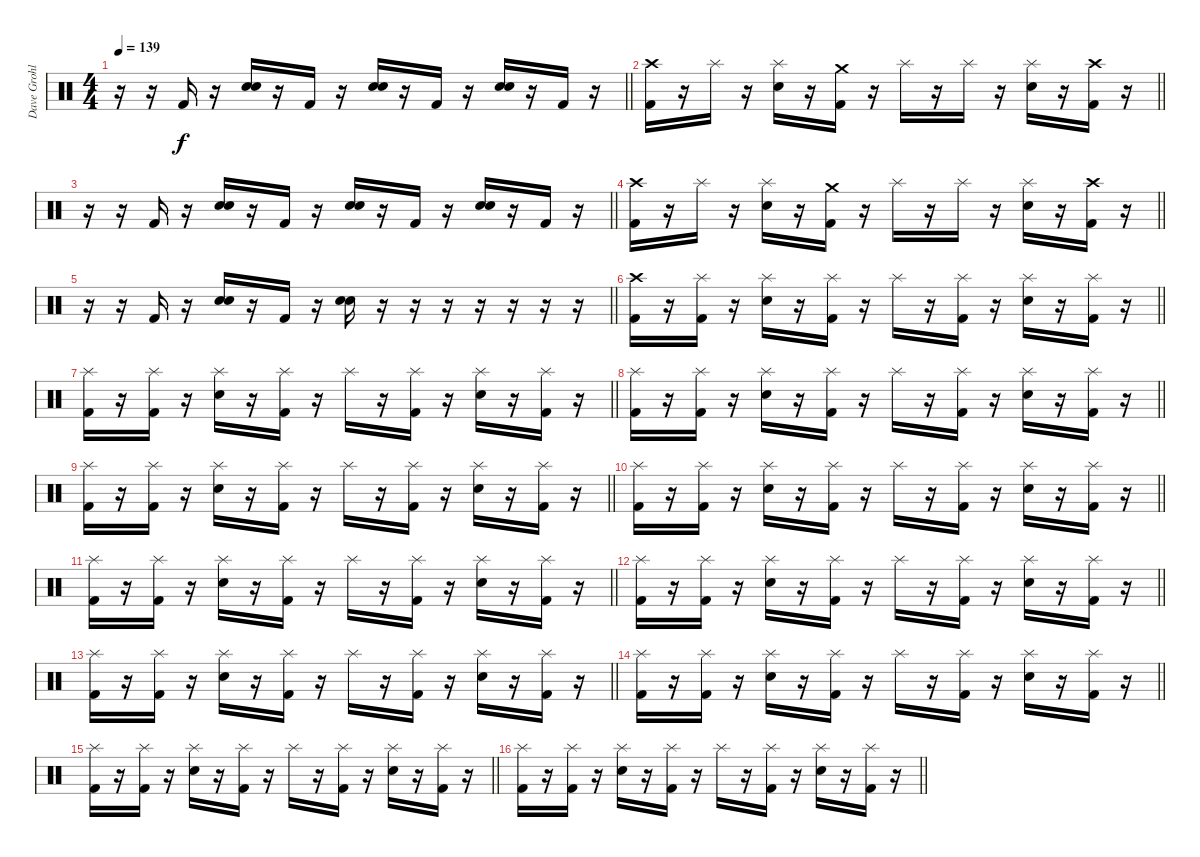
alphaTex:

\track ("Dave Grohl" "Dave Grohl") {instrument percussion}
\staff {score}
\articulation defaults
\ts (4 4)
\tempo 139
\clef neutral
\barLineRight lightlight
\ks c
r.16{dy f} r.16 "Kick (hit) 2".16 r.16 ("Electric Snare (hit)" "Electric Snare (hit)").16 r.16 "Kick (hit) 2".16 r.16 ("Electric Snare (hit)" "Electric Snare (hit)").16 r.16 "Kick (hit) 2".16 r.16 ("Electric Snare (hit)" "Electric Snare (hit)").16 r.16 "Kick (hit) 2".16 r.16 |
\barLineRight lightlight
("Crash high (hit)" "Kick (hit) 2").16 r.16 "Splash (hit)".16 r.16 ("Splash (hit)" "Electric Snare (hit)").16 r.16 ("Crash medium (hit)" "Kick (hit) 2").16 r.16 "Splash (hit)".16 r.16 "Splash (hit)".16 r.16 ("Splash (hit)" "Electric Snare (hit)").16 r.16 ("Crash high (hit)" "Kick (hit) 2").16 r.16 |
\barLineRight lightlight
r.16 r.16 "Kick (hit) 2".16 r.16 ("Electric Snare (hit)" "Electric Snare (hit)").16 r.16 "Kick (hit) 2".16 r.16 ("Electric Snare (hit)" "Electric Snare (hit)").16 r.16 "Kick (hit) 2".16 r.16 ("Electric Snare (hit)" "Electric Snare (hit)").16 r.16 "Kick (hit) 2".16 r.16 |
\barLineRight lightlight
("Crash high (hit)" "Kick (hit) 2").16 r.16 "Splash (hit)".16 r.16 ("Splash (hit)" "Electric Snare (hit)").16 r.16 ("Crash medium (hit)" "Kick (hit) 2").16 r.16 "Splash (hit)".16 r.16 "Splash (hit)".16 r.16 ("Splash (hit)" "Electric Snare (hit)").16 r.16 ("Crash high (hit)" "Kick (hit) 2").16 r.16 |
\barLineRight lightlight
r.16 r.16 "Kick (hit) 2".16 r.16 ("Electric Snare (hit)" "Electric Snare (hit)").16 r.16 "Kick (hit) 2".16 r.16 ("Electric Snare (hit)" "Electric Snare (hit)").16 r.16 r.16 r.16 r.16 r.16 r.16 r.16 |
\barLineRight lightlight
("Crash high (hit)" "Kick (hit) 2").16 r.16 ("Splash (hit)" "Kick (hit) 2").16 r.16 ("Splash (hit)" "Electric Snare (hit)").16 r.16 ("Splash (hit)" "Kick (hit) 2").16 r.16 "Splash (hit)".16 r.16 ("Splash (hit)" "Kick (hit) 2").16 r.16 ("Splash (hit)" "Electric Snare (hit)").16 r.16 ("Splash (hit)" "Kick (hit) 2").16 r.16 |
\barLineRight lightlight
("Splash (hit)" "Kick (hit) 2").16 r.16 ("Splash (hit)" "Kick (hit) 2").16 r.16 ("Splash (hit)" "Electric Snare (hit)").16 r.16 ("Splash (hit)" "Kick (hit) 2").16 r.16 "Splash (hit)".16 r.16 ("Splash (hit)" "Kick (hit) 2").16 r.16 ("Splash (hit)" "Electric Snare (hit)").16 r.16 ("Splash (hit)" "Kick (hit) 2").16 r.16 |
\barLineRight lightlight
("Splash (hit)" "Kick (hit) 2").16 r.16 ("Splash (hit)" "Kick (hit) 2").16 r.16 ("Splash (hit)" "Electric Snare (hit)").16 r.16 ("Splash (hit)" "Kick (hit) 2").16 r.16 "Splash (hit)".16 r.16 ("Splash (hit)" "Kick (hit) 2").16 r.16 ("Splash (hit)" "Electric Snare (hit)").16 r.16 ("Splash (hit)" "Kick (hit) 2").16 r.16 |
\barLineRight lightlight
("Splash (hit)" "Kick (hit) 2").16 r.16 ("Splash (hit)" "Kick (hit) 2").16 r.16 ("Splash (hit)" "Electric Snare (hit)").16 r.16 ("Splash (hit)" "Kick (hit) 2").16 r.16 "Splash (hit)".16 r.16 ("Splash (hit)" "Kick (hit) 2").16 r.16 ("Splash (hit)" "Electric Snare (hit)").16 r.16 ("Splash (hit)" "Kick (hit) 2").16 r.16 |
\barLineRight lightlight
("Splash (hit)" "Kick (hit) 2").16 r.16 ("Splash (hit)" "Kick (hit) 2").16 r.16 ("Splash (hit)" "Electric Snare (hit)").16 r.16 ("Splash (hit)" "Kick (hit) 2").16 r.16 "Splash (hit)".16 r.16 ("Splash (hit)" "Kick (hit) 2").16 r.16 ("Splash (hit)" "Electric Snare (hit)").16 r.16 ("Splash (hit)" "Kick (hit) 2").16 r.16 |
\barLineRight lightlight
("Splash (hit)" "Kick (hit) 2").16 r.16 ("Splash (hit)" "Kick (hit) 2").16 r.16 ("Splash (hit)" "Electric Snare (hit)").16 r.16 ("Splash (hit)" "Kick (hit) 2").16 r.16 "Splash (hit)".16 r.16 ("Splash (hit)" "Kick (hit) 2").16 r.16 ("Splash (hit)" "Electric Snare (hit)").16 r.16 ("Splash (hit)" "Kick (hit) 2").16 r.16 |
\barLineRight lightlight
("Splash (hit)" "Kick (hit) 2").16 r.16 ("Splash (hit)" "Kick (hit) 2").16 r.16 ("Splash (hit)" "Electric Snare (hit)").16 r.16 ("Splash (hit)" "Kick (hit) 2").16 r.16 "Splash (hit)".16 r.16 ("Splash (hit)" "Kick (hit) 2").16 r.16 ("Splash (hit)" "Electric Snare (hit)").16 r.16 ("Splash (hit)" "Kick (hit) 2").16 r.16 |
\barLineRight lightlight
("Splash (hit)" "Kick (hit) 2").16 r.16 ("Splash (hit)" "Kick (hit) 2").16 r.16 ("Splash (hit)" "Electric Snare (hit)").16 r.16 ("Splash (hit)" "Kick (hit) 2").16 r.16 "Splash (hit)".16 r.16 ("Splash (hit)" "Kick (hit) 2").16 r.16 ("Splash (hit)" "Electric Snare (hit)").16 r.16 ("Splash (hit)" "Kick (hit) 2").16 r.16 |
\barLineRight lightlight
("Splash (hit)" "Kick (hit) 2").16 r.16 ("Splash (hit)" "Kick (hit) 2").16 r.16 ("Splash (hit)" "Electric Snare (hit)").16 r.16 ("Splash (hit)" "Kick (hit) 2").16 r.16 "Splash (hit)".16 r.16 ("Splash (hit)" "Kick (hit) 2").16 r.16 ("Splash (hit)" "Electric Snare (hit)").16 r.16 ("Splash (hit)" "Kick (hit) 2").16 r.16 |
\barLineRight lightlight
("Splash (hit)" "Kick (hit) 2").16 r.16 ("Splash (hit)" "Kick (hit) 2").16 r.16 ("Splash (hit)" "Electric Snare (hit)").16 r.16 ("Splash (hit)" "Kick (hit) 2").16 r.16 "Splash (hit)".16 r.16 ("Splash (hit)" "Kick (hit) 2").16 r.16 ("Splash (hit)" "Electric Snare (hit)").16 r.16 ("Splash (hit)" "Kick (hit) 2").16 r.16 |
\barLineRight lightlight
("Splash (hit)" "Kick (hit) 2").16 r.16 ("Splash (hit)" "Kick (hit) 2").16 r.16 ("Splash (hit)" "Electric Snare (hit)").16 r.16 ("Splash (hit)" "Kick (hit) 2").16 r.16 "Splash (hit)".16 r.16 ("Splash (hit)" "Kick (hit) 2").16 r.16 ("Splash (hit)" "Electric Snare (hit)").16 r.16 ("Splash (hit)" "Kick (hit) 2").16 r.16
